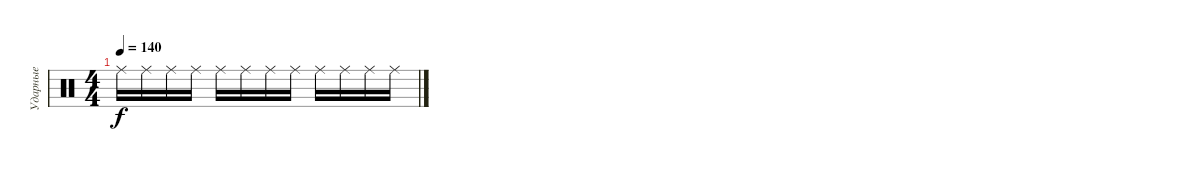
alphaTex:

\track ("Ударные" "Ударные") {instrument percussion}
\staff {score}
\articulation defaults
\ts (4 4)
\tempo 140
\clef neutral
\ks c "Ride (middle)".16{dy f} "Ride (middle)".16 "Ride (middle)".16 "Ride (middle)".16 "Ride (middle)".16 "Ride (middle)".16 "Ride (middle)".16 "Ride (middle)".16 "Ride (middle)".16 "Ride (middle)".16 "Ride (middle)".16 "Ride (middle)".16
